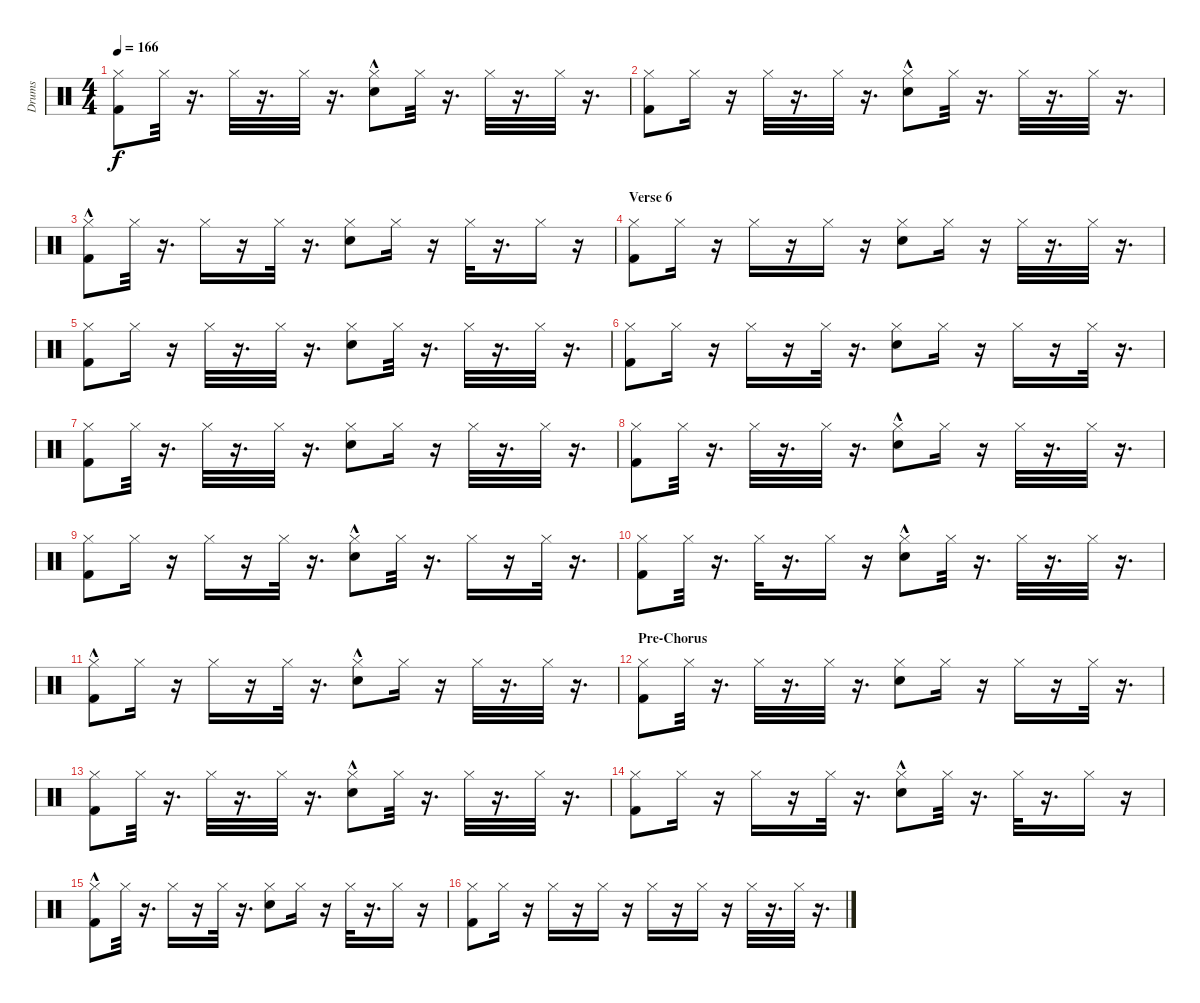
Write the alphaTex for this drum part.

\track ("Drums" "Drums") {instrument percussion}
\staff {score}
\articulation defaults
\ts (4 4)
\tempo 166
\clef neutral
\ks c
("Kick (hit) 2" "Hi-Hat (closed)").8{dy f} "Hi-Hat (closed)".32 r.16{d} "Hi-Hat (closed)".32 r.16{d} "Hi-Hat (closed)".32 r.16{d} ("Hi-Hat (closed)" "Snare (hit) 2"{hac}).8 "Hi-Hat (closed)".32 r.16{d} "Hi-Hat (closed)".32 r.16{d} "Hi-Hat (closed)".32 r.16{d} |
("Kick (hit) 2" "Hi-Hat (closed)").8 "Hi-Hat (closed)".16 r.16 "Hi-Hat (closed)".32 r.16{d} "Hi-Hat (closed)".32 r.16{d} ("Hi-Hat (closed)" "Snare (hit) 2"{hac}).8 "Hi-Hat (closed)".32 r.16{d} "Hi-Hat (closed)".32 r.16{d} "Hi-Hat (closed)".32 r.16{d} |
("Kick (hit) 2"{hac} "Hi-Hat (closed)").8 "Hi-Hat (closed)".32 r.16{d} "Hi-Hat (closed)".16 r.16 "Hi-Hat (closed)".32 r.16{d} ("Hi-Hat (closed)" "Snare (hit) 2").8 "Hi-Hat (closed)".16 r.16 "Hi-Hat (closed)".32 r.16{d} "Hi-Hat (closed)".16 r.16 |
\section ("" "Verse 6")
("Kick (hit) 2" "Hi-Hat (closed)").8 "Hi-Hat (closed)".16 r.16 "Hi-Hat (closed)".16 r.16 "Hi-Hat (closed)".16 r.16 ("Hi-Hat (closed)" "Snare (hit) 2").8 "Hi-Hat (closed)".16 r.16 "Hi-Hat (closed)".32 r.16{d} "Hi-Hat (closed)".32 r.16{d} |
("Kick (hit) 2" "Hi-Hat (closed)").8 "Hi-Hat (closed)".16 r.16 "Hi-Hat (closed)".32 r.16{d} "Hi-Hat (closed)".32 r.16{d} ("Hi-Hat (closed)" "Snare (hit) 2").8 "Hi-Hat (closed)".32 r.16{d} "Hi-Hat (closed)".32 r.16{d} "Hi-Hat (closed)".32 r.16{d} |
("Kick (hit) 2" "Hi-Hat (closed)").8 "Hi-Hat (closed)".16 r.16 "Hi-Hat (closed)".16 r.16 "Hi-Hat (closed)".32 r.16{d} ("Hi-Hat (closed)" "Snare (hit) 2").8 "Hi-Hat (closed)".16 r.16 "Hi-Hat (closed)".16 r.16 "Hi-Hat (closed)".32 r.16{d} |
("Kick (hit) 2" "Hi-Hat (closed)").8 "Hi-Hat (closed)".32 r.16{d} "Hi-Hat (closed)".32 r.16{d} "Hi-Hat (closed)".32 r.16{d} ("Hi-Hat (closed)" "Snare (hit) 2").8 "Hi-Hat (closed)".16 r.16 "Hi-Hat (closed)".32 r.16{d} "Hi-Hat (closed)".32 r.16{d} |
("Kick (hit) 2" "Hi-Hat (closed)").8 "Hi-Hat (closed)".32 r.16{d} "Hi-Hat (closed)".32 r.16{d} "Hi-Hat (closed)".32 r.16{d} ("Hi-Hat (closed)" "Snare (hit) 2"{hac}).8 "Hi-Hat (closed)".16 r.16 "Hi-Hat (closed)".32 r.16{d} "Hi-Hat (closed)".32 r.16{d} |
("Kick (hit) 2" "Hi-Hat (closed)").8 "Hi-Hat (closed)".16 r.16 "Hi-Hat (closed)".16 r.16 "Hi-Hat (closed)".32 r.16{d} ("Hi-Hat (closed)" "Snare (hit) 2"{hac}).8 "Hi-Hat (closed)".32 r.16{d} "Hi-Hat (closed)".16 r.16 "Hi-Hat (closed)".32 r.16{d} |
("Kick (hit) 2" "Hi-Hat (closed)").8 "Hi-Hat (closed)".32 r.16{d} "Hi-Hat (closed)".32 r.16{d} "Hi-Hat (closed)".16 r.16 ("Hi-Hat (closed)" "Snare (hit) 2"{hac}).8 "Hi-Hat (closed)".32 r.16{d} "Hi-Hat (closed)".32 r.16{d} "Hi-Hat (closed)".32 r.16{d} |
("Kick (hit) 2"{hac} "Hi-Hat (closed)").8 "Hi-Hat (closed)".16 r.16 "Hi-Hat (closed)".16 r.16 "Hi-Hat (closed)".32 r.16{d} ("Hi-Hat (closed)" "Snare (hit) 2"{hac}).8 "Hi-Hat (closed)".16 r.16 "Hi-Hat (closed)".32 r.16{d} "Hi-Hat (closed)".32 r.16{d} |
\section ("" "Pre-Chorus")
("Kick (hit) 2" "Hi-Hat (closed)").8 "Hi-Hat (closed)".32 r.16{d} "Hi-Hat (closed)".32 r.16{d} "Hi-Hat (closed)".32 r.16{d} ("Hi-Hat (closed)" "Snare (hit) 2").8 "Hi-Hat (closed)".16 r.16 "Hi-Hat (closed)".16 r.16 "Hi-Hat (closed)".32 r.16{d} |
("Kick (hit) 2" "Hi-Hat (closed)").8 "Hi-Hat (closed)".32 r.16{d} "Hi-Hat (closed)".32 r.16{d} "Hi-Hat (closed)".32 r.16{d} ("Hi-Hat (closed)" "Snare (hit) 2"{hac}).8 "Hi-Hat (closed)".32 r.16{d} "Hi-Hat (closed)".32 r.16{d} "Hi-Hat (closed)".32 r.16{d} |
("Kick (hit) 2" "Hi-Hat (closed)").8 "Hi-Hat (closed)".16 r.16 "Hi-Hat (closed)".16 r.16 "Hi-Hat (closed)".32 r.16{d} ("Hi-Hat (closed)" "Snare (hit) 2"{hac}).8 "Hi-Hat (closed)".32 r.16{d} "Hi-Hat (closed)".32 r.16{d} "Hi-Hat (closed)".16 r.16 |
("Kick (hit) 2"{hac} "Hi-Hat (closed)").8 "Hi-Hat (closed)".32 r.16{d} "Hi-Hat (closed)".16 r.16 "Hi-Hat (closed)".32 r.16{d} ("Hi-Hat (closed)" "Snare (hit) 2").8 "Hi-Hat (closed)".16 r.16 "Hi-Hat (closed)".32 r.16{d} "Hi-Hat (closed)".16 r.16 |
("Kick (hit) 2" "Hi-Hat (closed)").8 "Hi-Hat (closed)".16 r.16 "Hi-Hat (closed)".16 r.16 "Hi-Hat (closed)".16 r.16 "Hi-Hat (closed)".16 r.16 "Hi-Hat (closed)".16 r.16 "Hi-Hat (closed)".32 r.16{d} "Hi-Hat (closed)".32 r.16{d}
